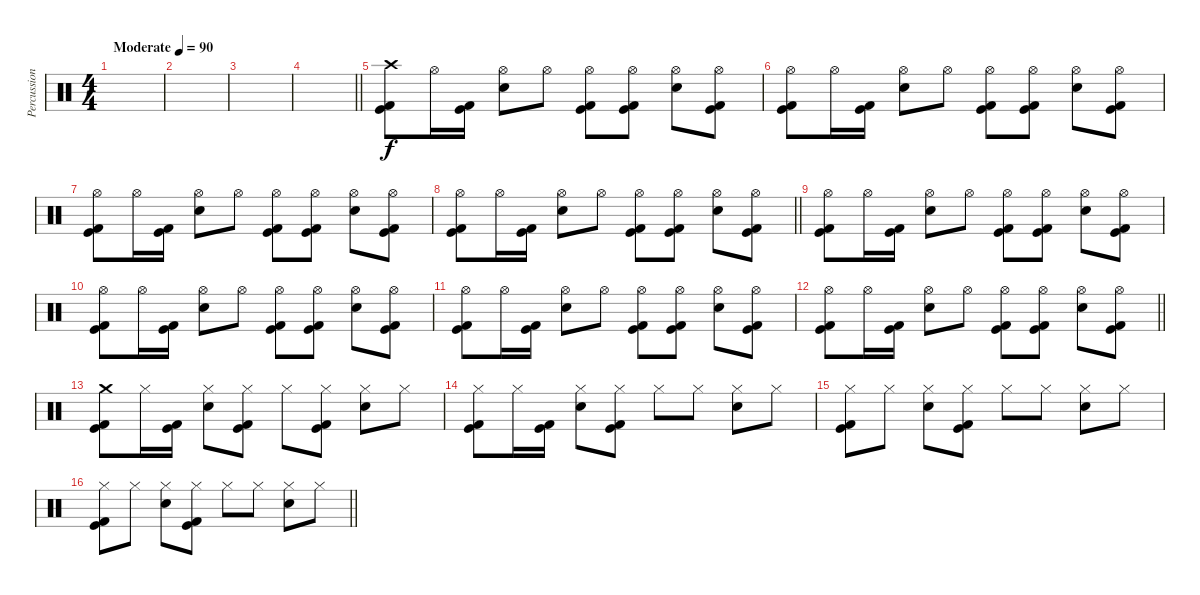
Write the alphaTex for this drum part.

\track ("Percussion" "Percussion") {instrument percussion}
\staff {score}
\articulation defaults
\ts (4 4)
\tempo (90 "Moderate")
\clef neutral
\ks c
|
|
|
\barLineRight lightlight
|
\section ("" "")
("Crash high (hit)" "Kick (hit)" "Kick (hit) 2").8 "Hi-Hat (open)".16 ("Kick (hit)" "Kick (hit) 2").16 ("Hi-Hat (open)" "Electric Snare (hit)").8 "Hi-Hat (open)".8 ("Hi-Hat (open)" "Kick (hit)" "Kick (hit) 2").8 ("Hi-Hat (open)" "Kick (hit)" "Kick (hit) 2").8 ("Hi-Hat (open)" "Electric Snare (hit)").8 ("Hi-Hat (open)" "Kick (hit)" "Kick (hit) 2").8 |
("Hi-Hat (open)" "Kick (hit)" "Kick (hit) 2").8 "Hi-Hat (open)".16 ("Kick (hit)" "Kick (hit) 2").16 ("Hi-Hat (open)" "Electric Snare (hit)").8 "Hi-Hat (open)".8 ("Hi-Hat (open)" "Kick (hit)" "Kick (hit) 2").8 ("Hi-Hat (open)" "Kick (hit)" "Kick (hit) 2").8 ("Hi-Hat (open)" "Electric Snare (hit)").8 ("Hi-Hat (open)" "Kick (hit)" "Kick (hit) 2").8 |
("Hi-Hat (open)" "Kick (hit)" "Kick (hit) 2").8 "Hi-Hat (open)".16 ("Kick (hit)" "Kick (hit) 2").16 ("Hi-Hat (open)" "Electric Snare (hit)").8 "Hi-Hat (open)".8 ("Hi-Hat (open)" "Kick (hit)" "Kick (hit) 2").8 ("Hi-Hat (open)" "Kick (hit)" "Kick (hit) 2").8 ("Hi-Hat (open)" "Electric Snare (hit)").8 ("Hi-Hat (open)" "Kick (hit)" "Kick (hit) 2").8 |
\barLineRight lightlight
("Hi-Hat (open)" "Kick (hit)" "Kick (hit) 2").8 "Hi-Hat (open)".16 ("Kick (hit)" "Kick (hit) 2").16 ("Hi-Hat (open)" "Electric Snare (hit)").8 "Hi-Hat (open)".8 ("Hi-Hat (open)" "Kick (hit)" "Kick (hit) 2").8 ("Hi-Hat (open)" "Kick (hit)" "Kick (hit) 2").8 ("Hi-Hat (open)" "Electric Snare (hit)").8 ("Hi-Hat (open)" "Kick (hit)" "Kick (hit) 2").8 |
\section ("" "")
("Hi-Hat (open)" "Kick (hit)" "Kick (hit) 2").8 "Hi-Hat (open)".16 ("Kick (hit)" "Kick (hit) 2").16 ("Hi-Hat (open)" "Electric Snare (hit)").8 "Hi-Hat (open)".8 ("Hi-Hat (open)" "Kick (hit)" "Kick (hit) 2").8 ("Hi-Hat (open)" "Kick (hit)" "Kick (hit) 2").8 ("Hi-Hat (open)" "Electric Snare (hit)").8 ("Hi-Hat (open)" "Kick (hit)" "Kick (hit) 2").8 |
("Hi-Hat (open)" "Kick (hit)" "Kick (hit) 2").8 "Hi-Hat (open)".16 ("Kick (hit)" "Kick (hit) 2").16 ("Hi-Hat (open)" "Electric Snare (hit)").8 "Hi-Hat (open)".8 ("Hi-Hat (open)" "Kick (hit)" "Kick (hit) 2").8 ("Hi-Hat (open)" "Kick (hit)" "Kick (hit) 2").8 ("Hi-Hat (open)" "Electric Snare (hit)").8 ("Hi-Hat (open)" "Kick (hit)" "Kick (hit) 2").8 |
("Hi-Hat (open)" "Kick (hit)" "Kick (hit) 2").8 "Hi-Hat (open)".16 ("Kick (hit)" "Kick (hit) 2").16 ("Hi-Hat (open)" "Electric Snare (hit)").8 "Hi-Hat (open)".8 ("Hi-Hat (open)" "Kick (hit)" "Kick (hit) 2").8 ("Hi-Hat (open)" "Kick (hit)" "Kick (hit) 2").8 ("Hi-Hat (open)" "Electric Snare (hit)").8 ("Hi-Hat (open)" "Kick (hit)" "Kick (hit) 2").8 |
\barLineRight lightlight
("Hi-Hat (open)" "Kick (hit)" "Kick (hit) 2").8 "Hi-Hat (open)".16 ("Kick (hit)" "Kick (hit) 2").16 ("Hi-Hat (open)" "Electric Snare (hit)").8 "Hi-Hat (open)".8 ("Hi-Hat (open)" "Kick (hit)" "Kick (hit) 2").8 ("Hi-Hat (open)" "Kick (hit)" "Kick (hit) 2").8 ("Hi-Hat (open)" "Electric Snare (hit)").8 ("Hi-Hat (open)" "Kick (hit)" "Kick (hit) 2").8 |
\section ("" "")
("Crash medium (hit)" "Kick (hit)" "Kick (hit) 2").8 "Hi-Hat (closed)".16 ("Kick (hit)" "Kick (hit) 2").16 ("Hi-Hat (closed)" "Electric Snare (hit)").8 ("Hi-Hat (closed)" "Kick (hit)" "Kick (hit) 2").8 "Hi-Hat (closed)".8 ("Hi-Hat (closed)" "Kick (hit)" "Kick (hit) 2").8 ("Hi-Hat (closed)" "Electric Snare (hit)").8 "Hi-Hat (closed)".8 |
("Hi-Hat (closed)" "Kick (hit)" "Kick (hit) 2").8 "Hi-Hat (closed)".16 ("Kick (hit)" "Kick (hit) 2").16 ("Hi-Hat (closed)" "Electric Snare (hit)").8 ("Hi-Hat (closed)" "Kick (hit)" "Kick (hit) 2").8 "Hi-Hat (closed)".8 "Hi-Hat (closed)".8 ("Hi-Hat (closed)" "Electric Snare (hit)").8 "Hi-Hat (closed)".8 |
("Hi-Hat (closed)" "Kick (hit)" "Kick (hit) 2").8 "Hi-Hat (closed)".8 ("Hi-Hat (closed)" "Electric Snare (hit)").8 ("Hi-Hat (closed)" "Kick (hit)" "Kick (hit) 2").8 "Hi-Hat (closed)".8 "Hi-Hat (closed)".8 ("Hi-Hat (closed)" "Electric Snare (hit)").8 "Hi-Hat (closed)".8 |
\barLineRight lightlight
("Hi-Hat (closed)" "Kick (hit)" "Kick (hit) 2").8 "Hi-Hat (closed)".8 ("Hi-Hat (closed)" "Electric Snare (hit)").8 ("Hi-Hat (closed)" "Kick (hit)" "Kick (hit) 2").8 "Hi-Hat (closed)".8 "Hi-Hat (closed)".8 ("Hi-Hat (closed)" "Electric Snare (hit)").8 "Hi-Hat (closed)".8
